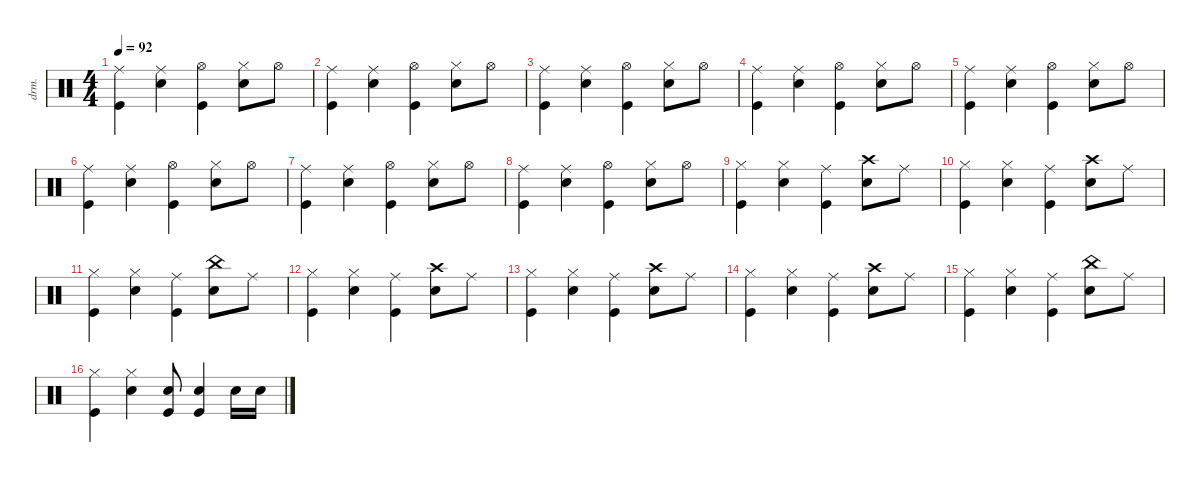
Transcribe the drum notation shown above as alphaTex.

\defaultSystemsLayout 4
\hideDynamics
\bracketExtendMode nobrackets
\otherSystemsTrackNameOrientation horizontal
\track ("waves" "drm.") {instrument percussion}
\staff {score}
\articulation defaults
\ts (4 4)
\tempo 92
\clef neutral
\ks c
("Ride (middle)" "Kick (hit)").4{dy f beam Down} ("Ride (middle)" "Snare (hit) 2").4{beam Down} ("Hi-Hat (open)" "Kick (hit)").4{beam Down} ("Hi-Hat (closed)" "Snare (hit) 2").8{beam Down} "Hi-Hat (open)".8{beam Down} |
("Ride (middle)" "Kick (hit)").4{beam Down} ("Ride (middle)" "Snare (hit) 2").4{beam Down} ("Hi-Hat (open)" "Kick (hit)").4{beam Down} ("Hi-Hat (closed)" "Snare (hit) 2").8{beam Down} "Hi-Hat (open)".8{beam Down} |
("Ride (middle)" "Kick (hit)").4{beam Down} ("Ride (middle)" "Snare (hit) 2").4{beam Down} ("Hi-Hat (open)" "Kick (hit)").4{beam Down} ("Hi-Hat (closed)" "Snare (hit) 2").8{beam Down} "Hi-Hat (open)".8{beam Down} |
("Ride (middle)" "Kick (hit)").4{beam Down} ("Ride (middle)" "Snare (hit) 2").4{beam Down} ("Hi-Hat (open)" "Kick (hit)").4{beam Down} ("Hi-Hat (closed)" "Snare (hit) 2").8{beam Down} "Hi-Hat (open)".8{beam Down} |
("Ride (middle)" "Kick (hit)").4{beam Down} ("Ride (middle)" "Snare (hit) 2").4{beam Down} ("Hi-Hat (open)" "Kick (hit)").4{beam Down} ("Hi-Hat (closed)" "Snare (hit) 2").8{beam Down} "Hi-Hat (open)".8{beam Down} |
("Ride (middle)" "Kick (hit)").4{beam Down} ("Ride (middle)" "Snare (hit) 2").4{beam Down} ("Hi-Hat (open)" "Kick (hit)").4{beam Down} ("Hi-Hat (closed)" "Snare (hit) 2").8{beam Down} "Hi-Hat (open)".8{beam Down} |
("Ride (middle)" "Kick (hit)").4{beam Down} ("Ride (middle)" "Snare (hit) 2").4{beam Down} ("Hi-Hat (open)" "Kick (hit)").4{beam Down} ("Hi-Hat (closed)" "Snare (hit) 2").8{beam Down} "Hi-Hat (open)".8{beam Down} |
("Ride (middle)" "Kick (hit)").4{beam Down} ("Ride (middle)" "Snare (hit) 2").4{beam Down} ("Hi-Hat (open)" "Kick (hit)").4{beam Down} ("Hi-Hat (closed)" "Snare (hit) 2").8{beam Down} "Hi-Hat (open)".8{beam Down} |
("Hi-Hat (closed)" "Kick (hit)").4{beam Down} ("Hi-Hat (closed)" "Snare (hit) 2").4{beam Down} ("Ride (middle)" "Kick (hit)").4{beam Down} ("Crash high (hit)" "Snare (hit) 2").8{beam Down} "Ride (middle)".8{beam Down} |
("Hi-Hat (closed)" "Kick (hit)").4{beam Down} ("Hi-Hat (closed)" "Snare (hit) 2").4{beam Down} ("Ride (middle)" "Kick (hit)").4{beam Down} ("Crash high (hit)" "Snare (hit) 2").8{beam Down} "Ride (middle)".8{beam Down} |
("Hi-Hat (closed)" "Kick (hit)").4{beam Down} ("Hi-Hat (closed)" "Snare (hit) 2").4{beam Down} ("Ride (middle)" "Kick (hit)").4{beam Down} ("China (hit)" "Snare (hit) 2").8{beam Down} "Ride (middle)".8{beam Down} |
("Hi-Hat (closed)" "Kick (hit)").4{beam Down} ("Hi-Hat (closed)" "Snare (hit) 2").4{beam Down} ("Ride (middle)" "Kick (hit)").4{beam Down} ("Crash high (hit)" "Snare (hit) 2").8{beam Down} "Ride (middle)".8{beam Down} |
("Hi-Hat (closed)" "Kick (hit)").4{beam Down} ("Hi-Hat (closed)" "Snare (hit) 2").4{beam Down} ("Ride (middle)" "Kick (hit)").4{beam Down} ("Crash high (hit)" "Snare (hit) 2").8{beam Down} "Ride (middle)".8{beam Down} |
("Hi-Hat (closed)" "Kick (hit)").4{beam Down} ("Hi-Hat (closed)" "Snare (hit) 2").4{beam Down} ("Ride (middle)" "Kick (hit)").4{beam Down} ("Crash high (hit)" "Snare (hit) 2").8{beam Down} "Ride (middle)".8{beam Down} |
("Hi-Hat (closed)" "Kick (hit)").4{beam Down} ("Hi-Hat (closed)" "Snare (hit) 2").4{beam Down} ("Ride (middle)" "Kick (hit)").4{beam Down} ("China (hit)" "Snare (hit) 2").8{beam Down} "Ride (middle)".8{beam Down} |
("Hi-Hat (closed)" "Kick (hit)").4{beam Down} ("Hi-Hat (closed)" "Snare (hit) 2").4{beam Down} ("Snare (hit) 2" "Kick (hit)").8{beam Up} ("Snare (hit) 2" "Kick (hit)").4{beam Up} "Snare (hit) 2".16{beam Down} "Snare (hit) 2".16{beam Down}
